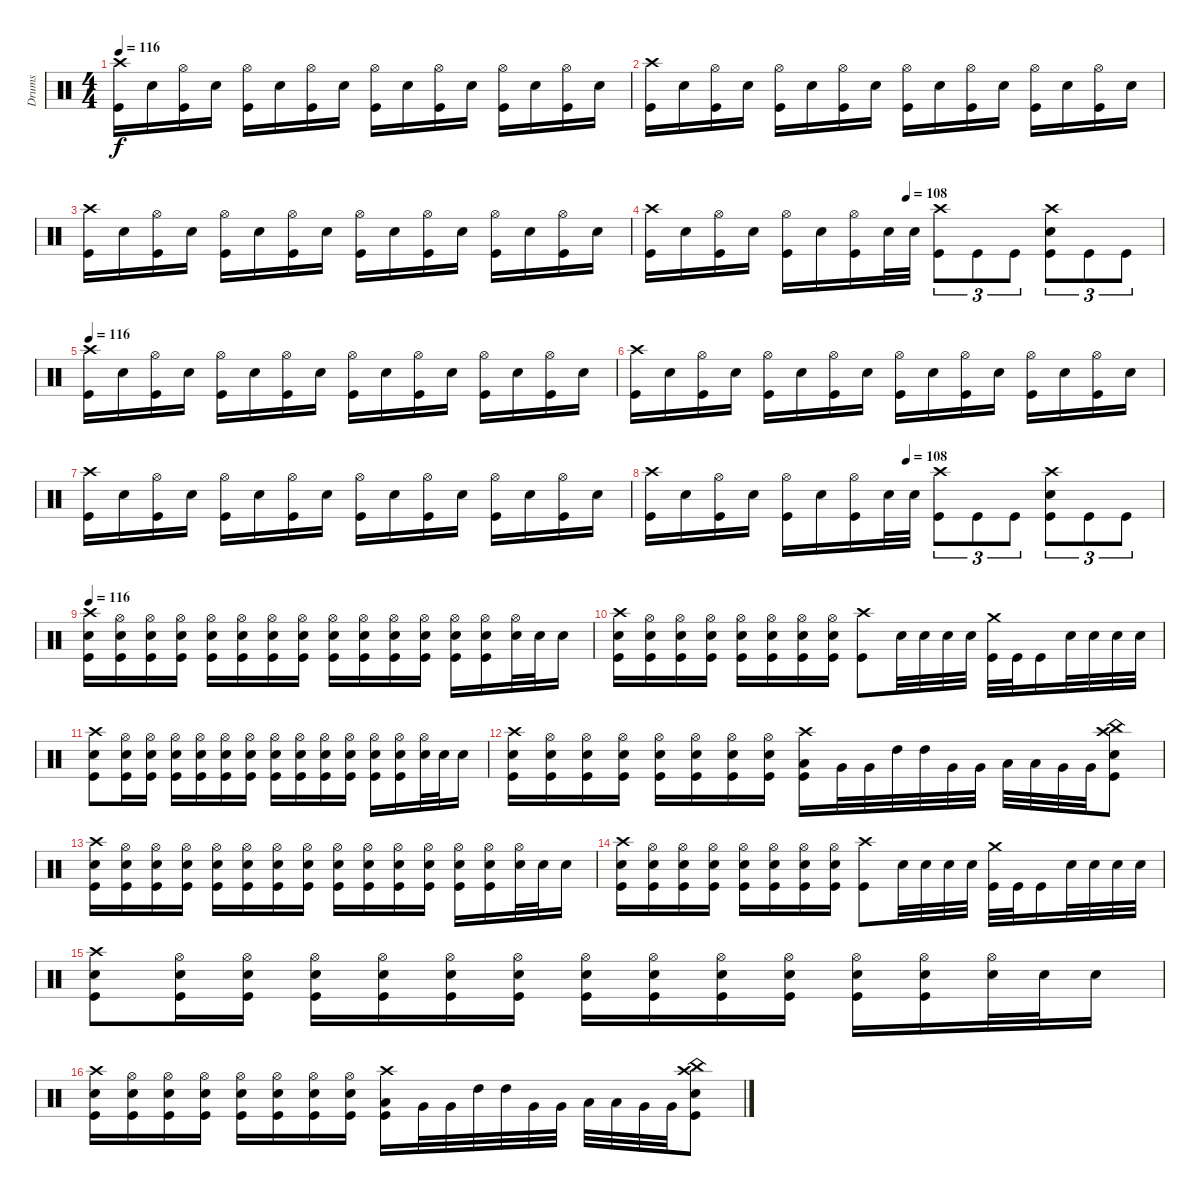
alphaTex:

\track ("Drums" "Drums") {instrument percussion}
\staff {score}
\articulation defaults
\ts (4 4)
\tempo 116
\clef neutral
\ks c
("Crash high (hit)" "Kick (hit)").16{dy f} "Electric Snare (hit)".16 ("Hi-Hat (open)" "Kick (hit)").16 "Electric Snare (hit)".16 ("Hi-Hat (open)" "Kick (hit)").16 "Electric Snare (hit)".16 ("Hi-Hat (open)" "Kick (hit)").16 "Electric Snare (hit)".16 ("Hi-Hat (open)" "Kick (hit)").16 "Electric Snare (hit)".16 ("Hi-Hat (open)" "Kick (hit)").16 "Electric Snare (hit)".16 ("Hi-Hat (open)" "Kick (hit)").16 "Electric Snare (hit)".16 ("Hi-Hat (open)" "Kick (hit)").16 "Electric Snare (hit)".16 |
("Crash high (hit)" "Kick (hit)").16 "Electric Snare (hit)".16 ("Hi-Hat (open)" "Kick (hit)").16 "Electric Snare (hit)".16 ("Hi-Hat (open)" "Kick (hit)").16 "Electric Snare (hit)".16 ("Hi-Hat (open)" "Kick (hit)").16 "Electric Snare (hit)".16 ("Hi-Hat (open)" "Kick (hit)").16 "Electric Snare (hit)".16 ("Hi-Hat (open)" "Kick (hit)").16 "Electric Snare (hit)".16 ("Hi-Hat (open)" "Kick (hit)").16 "Electric Snare (hit)".16 ("Hi-Hat (open)" "Kick (hit)").16 "Electric Snare (hit)".16 |
("Crash high (hit)" "Kick (hit)").16 "Electric Snare (hit)".16 ("Hi-Hat (open)" "Kick (hit)").16 "Electric Snare (hit)".16 ("Hi-Hat (open)" "Kick (hit)").16 "Electric Snare (hit)".16 ("Hi-Hat (open)" "Kick (hit)").16 "Electric Snare (hit)".16 ("Hi-Hat (open)" "Kick (hit)").16 "Electric Snare (hit)".16 ("Hi-Hat (open)" "Kick (hit)").16 "Electric Snare (hit)".16 ("Hi-Hat (open)" "Kick (hit)").16 "Electric Snare (hit)".16 ("Hi-Hat (open)" "Kick (hit)").16 "Electric Snare (hit)".16 |
\tempo (108 0.5)
("Crash high (hit)" "Kick (hit)").16 "Electric Snare (hit)".16 ("Hi-Hat (open)" "Kick (hit)").16 "Electric Snare (hit)".16 ("Hi-Hat (open)" "Kick (hit)").16 "Electric Snare (hit)".16 ("Hi-Hat (open)" "Kick (hit)").16 "Electric Snare (hit)".32 "Electric Snare (hit)".32 ("Crash high (hit)" "Kick (hit)").8{tu (3 2)} "Kick (hit)".8{tu (3 2)} "Kick (hit)".8{tu (3 2)} ("Crash high (hit)" "Electric Snare (hit)" "Kick (hit)").8{tu (3 2)} "Kick (hit)".8{tu (3 2)} "Kick (hit)".8{tu (3 2)} |
\tempo 116
("Crash high (hit)" "Kick (hit)").16 "Electric Snare (hit)".16 ("Hi-Hat (open)" "Kick (hit)").16 "Electric Snare (hit)".16 ("Hi-Hat (open)" "Kick (hit)").16 "Electric Snare (hit)".16 ("Hi-Hat (open)" "Kick (hit)").16 "Electric Snare (hit)".16 ("Hi-Hat (open)" "Kick (hit)").16 "Electric Snare (hit)".16 ("Hi-Hat (open)" "Kick (hit)").16 "Electric Snare (hit)".16 ("Hi-Hat (open)" "Kick (hit)").16 "Electric Snare (hit)".16 ("Hi-Hat (open)" "Kick (hit)").16 "Electric Snare (hit)".16 |
("Crash high (hit)" "Kick (hit)").16 "Electric Snare (hit)".16 ("Hi-Hat (open)" "Kick (hit)").16 "Electric Snare (hit)".16 ("Hi-Hat (open)" "Kick (hit)").16 "Electric Snare (hit)".16 ("Hi-Hat (open)" "Kick (hit)").16 "Electric Snare (hit)".16 ("Hi-Hat (open)" "Kick (hit)").16 "Electric Snare (hit)".16 ("Hi-Hat (open)" "Kick (hit)").16 "Electric Snare (hit)".16 ("Hi-Hat (open)" "Kick (hit)").16 "Electric Snare (hit)".16 ("Hi-Hat (open)" "Kick (hit)").16 "Electric Snare (hit)".16 |
("Crash high (hit)" "Kick (hit)").16 "Electric Snare (hit)".16 ("Hi-Hat (open)" "Kick (hit)").16 "Electric Snare (hit)".16 ("Hi-Hat (open)" "Kick (hit)").16 "Electric Snare (hit)".16 ("Hi-Hat (open)" "Kick (hit)").16 "Electric Snare (hit)".16 ("Hi-Hat (open)" "Kick (hit)").16 "Electric Snare (hit)".16 ("Hi-Hat (open)" "Kick (hit)").16 "Electric Snare (hit)".16 ("Hi-Hat (open)" "Kick (hit)").16 "Electric Snare (hit)".16 ("Hi-Hat (open)" "Kick (hit)").16 "Electric Snare (hit)".16 |
\tempo (108 0.5)
("Crash high (hit)" "Kick (hit)").16 "Electric Snare (hit)".16 ("Hi-Hat (open)" "Kick (hit)").16 "Electric Snare (hit)".16 ("Hi-Hat (open)" "Kick (hit)").16 "Electric Snare (hit)".16 ("Hi-Hat (open)" "Kick (hit)").16 "Electric Snare (hit)".32 "Electric Snare (hit)".32 ("Crash high (hit)" "Kick (hit)").8{tu (3 2)} "Kick (hit)".8{tu (3 2)} "Kick (hit)".8{tu (3 2)} ("Crash high (hit)" "Electric Snare (hit)" "Kick (hit)").8{tu (3 2)} "Kick (hit)".8{tu (3 2)} "Kick (hit)".8{tu (3 2)} |
\tempo 116
("Crash high (hit)" "Electric Snare (hit)" "Kick (hit)").16 ("Hi-Hat (open)" "Electric Snare (hit)" "Kick (hit)").16 ("Hi-Hat (open)" "Electric Snare (hit)" "Kick (hit)").16 ("Hi-Hat (open)" "Electric Snare (hit)" "Kick (hit)").16 ("Hi-Hat (open)" "Electric Snare (hit)" "Kick (hit)").16 ("Hi-Hat (open)" "Electric Snare (hit)" "Kick (hit)").16 ("Hi-Hat (open)" "Electric Snare (hit)" "Kick (hit)").16 ("Hi-Hat (open)" "Electric Snare (hit)" "Kick (hit)").16 ("Hi-Hat (open)" "Electric Snare (hit)" "Kick (hit)").16 ("Hi-Hat (open)" "Electric Snare (hit)" "Kick (hit)").16 ("Hi-Hat (open)" "Electric Snare (hit)" "Kick (hit)").16 ("Hi-Hat (open)" "Electric Snare (hit)" "Kick (hit)").16 ("Hi-Hat (open)" "Electric Snare (hit)" "Kick (hit)").16 ("Hi-Hat (open)" "Electric Snare (hit)" "Kick (hit)").16 ("Hi-Hat (open)" "Electric Snare (hit)").32 "Electric Snare (hit)".32 "Electric Snare (hit)".16 |
("Crash high (hit)" "Electric Snare (hit)" "Kick (hit)").16 ("Hi-Hat (open)" "Electric Snare (hit)" "Kick (hit)").16 ("Hi-Hat (open)" "Electric Snare (hit)" "Kick (hit)").16 ("Hi-Hat (open)" "Electric Snare (hit)" "Kick (hit)").16 ("Hi-Hat (open)" "Electric Snare (hit)" "Kick (hit)").16 ("Hi-Hat (open)" "Electric Snare (hit)" "Kick (hit)").16 ("Hi-Hat (open)" "Electric Snare (hit)" "Kick (hit)").16 ("Hi-Hat (open)" "Electric Snare (hit)" "Kick (hit)").16 ("Crash high (hit)" "Kick (hit)").8 "Electric Snare (hit)".32 "Electric Snare (hit)".32 "Electric Snare (hit)".32 "Electric Snare (hit)".32 ("Crash medium (hit)" "Kick (hit)").32 "Kick (hit)".32 "Kick (hit)".16 "Electric Snare (hit)".32 "Electric Snare (hit)".32 "Electric Snare (hit)".32 "Electric Snare (hit)".32 |
("Crash high (hit)" "Electric Snare (hit)" "Kick (hit)").8 ("Hi-Hat (open)" "Electric Snare (hit)" "Kick (hit)").16 ("Hi-Hat (open)" "Electric Snare (hit)" "Kick (hit)").16 ("Hi-Hat (open)" "Electric Snare (hit)" "Kick (hit)").16 ("Hi-Hat (open)" "Electric Snare (hit)" "Kick (hit)").16 ("Hi-Hat (open)" "Electric Snare (hit)" "Kick (hit)").16 ("Hi-Hat (open)" "Electric Snare (hit)" "Kick (hit)").16 ("Hi-Hat (open)" "Electric Snare (hit)" "Kick (hit)").16 ("Hi-Hat (open)" "Electric Snare (hit)" "Kick (hit)").16 ("Hi-Hat (open)" "Electric Snare (hit)" "Kick (hit)").16 ("Hi-Hat (open)" "Electric Snare (hit)" "Kick (hit)").16 ("Hi-Hat (open)" "Electric Snare (hit)" "Kick (hit)").16 ("Hi-Hat (open)" "Electric Snare (hit)" "Kick (hit)").16 ("Hi-Hat (open)" "Electric Snare (hit)").32 "Electric Snare (hit)".32 "Electric Snare (hit)".16 |
("Crash high (hit)" "Electric Snare (hit)" "Kick (hit)").16 ("Hi-Hat (open)" "Electric Snare (hit)" "Kick (hit)").16 ("Hi-Hat (open)" "Electric Snare (hit)" "Kick (hit)").16 ("Hi-Hat (open)" "Electric Snare (hit)" "Kick (hit)").16 ("Hi-Hat (open)" "Electric Snare (hit)" "Kick (hit)").16 ("Hi-Hat (open)" "Electric Snare (hit)" "Kick (hit)").16 ("Hi-Hat (open)" "Electric Snare (hit)" "Kick (hit)").16 ("Hi-Hat (open)" "Electric Snare (hit)" "Kick (hit)").16 ("Crash high (hit)" "Low Tom (hit)" "Kick (hit)").16 "Very Low Tom (hit)".32 "Very Low Tom (hit)".32 "High Tom (hit)".32 "High Tom (hit)".32 "Very Low Tom (hit)".32 "Very Low Tom (hit)".32 "Low Tom (hit)".32 "Low Tom (hit)".32 "Very Low Tom (hit)".32 "Very Low Tom (hit)".32 ("Crash high (hit)" "China (hit)" "Electric Snare (hit)" "Kick (hit)").8 |
("Crash high (hit)" "Electric Snare (hit)" "Kick (hit)").16 ("Hi-Hat (open)" "Electric Snare (hit)" "Kick (hit)").16 ("Hi-Hat (open)" "Electric Snare (hit)" "Kick (hit)").16 ("Hi-Hat (open)" "Electric Snare (hit)" "Kick (hit)").16 ("Hi-Hat (open)" "Electric Snare (hit)" "Kick (hit)").16 ("Hi-Hat (open)" "Electric Snare (hit)" "Kick (hit)").16 ("Hi-Hat (open)" "Electric Snare (hit)" "Kick (hit)").16 ("Hi-Hat (open)" "Electric Snare (hit)" "Kick (hit)").16 ("Hi-Hat (open)" "Electric Snare (hit)" "Kick (hit)").16 ("Hi-Hat (open)" "Electric Snare (hit)" "Kick (hit)").16 ("Hi-Hat (open)" "Electric Snare (hit)" "Kick (hit)").16 ("Hi-Hat (open)" "Electric Snare (hit)" "Kick (hit)").16 ("Hi-Hat (open)" "Electric Snare (hit)" "Kick (hit)").16 ("Hi-Hat (open)" "Electric Snare (hit)" "Kick (hit)").16 ("Hi-Hat (open)" "Electric Snare (hit)").32 "Electric Snare (hit)".32 "Electric Snare (hit)".16 |
("Crash high (hit)" "Electric Snare (hit)" "Kick (hit)").16 ("Hi-Hat (open)" "Electric Snare (hit)" "Kick (hit)").16 ("Hi-Hat (open)" "Electric Snare (hit)" "Kick (hit)").16 ("Hi-Hat (open)" "Electric Snare (hit)" "Kick (hit)").16 ("Hi-Hat (open)" "Electric Snare (hit)" "Kick (hit)").16 ("Hi-Hat (open)" "Electric Snare (hit)" "Kick (hit)").16 ("Hi-Hat (open)" "Electric Snare (hit)" "Kick (hit)").16 ("Hi-Hat (open)" "Electric Snare (hit)" "Kick (hit)").16 ("Crash high (hit)" "Kick (hit)").8 "Electric Snare (hit)".32 "Electric Snare (hit)".32 "Electric Snare (hit)".32 "Electric Snare (hit)".32 ("Crash medium (hit)" "Kick (hit)").32 "Kick (hit)".32 "Kick (hit)".16 "Electric Snare (hit)".32 "Electric Snare (hit)".32 "Electric Snare (hit)".32 "Electric Snare (hit)".32 |
("Crash high (hit)" "Electric Snare (hit)" "Kick (hit)").8 ("Hi-Hat (open)" "Electric Snare (hit)" "Kick (hit)").16 ("Hi-Hat (open)" "Electric Snare (hit)" "Kick (hit)").16 ("Hi-Hat (open)" "Electric Snare (hit)" "Kick (hit)").16 ("Hi-Hat (open)" "Electric Snare (hit)" "Kick (hit)").16 ("Hi-Hat (open)" "Electric Snare (hit)" "Kick (hit)").16 ("Hi-Hat (open)" "Electric Snare (hit)" "Kick (hit)").16 ("Hi-Hat (open)" "Electric Snare (hit)" "Kick (hit)").16 ("Hi-Hat (open)" "Electric Snare (hit)" "Kick (hit)").16 ("Hi-Hat (open)" "Electric Snare (hit)" "Kick (hit)").16 ("Hi-Hat (open)" "Electric Snare (hit)" "Kick (hit)").16 ("Hi-Hat (open)" "Electric Snare (hit)" "Kick (hit)").16 ("Hi-Hat (open)" "Electric Snare (hit)" "Kick (hit)").16 ("Hi-Hat (open)" "Electric Snare (hit)").32 "Electric Snare (hit)".32 "Electric Snare (hit)".16 |
("Crash high (hit)" "Electric Snare (hit)" "Kick (hit)").16 ("Hi-Hat (open)" "Electric Snare (hit)" "Kick (hit)").16 ("Hi-Hat (open)" "Electric Snare (hit)" "Kick (hit)").16 ("Hi-Hat (open)" "Electric Snare (hit)" "Kick (hit)").16 ("Hi-Hat (open)" "Electric Snare (hit)" "Kick (hit)").16 ("Hi-Hat (open)" "Electric Snare (hit)" "Kick (hit)").16 ("Hi-Hat (open)" "Electric Snare (hit)" "Kick (hit)").16 ("Hi-Hat (open)" "Electric Snare (hit)" "Kick (hit)").16 ("Crash high (hit)" "Low Tom (hit)" "Kick (hit)").16 "Very Low Tom (hit)".32 "Very Low Tom (hit)".32 "High Tom (hit)".32 "High Tom (hit)".32 "Very Low Tom (hit)".32 "Very Low Tom (hit)".32 "Low Tom (hit)".32 "Low Tom (hit)".32 "Very Low Tom (hit)".32 "Very Low Tom (hit)".32 ("Crash high (hit)" "China (hit)" "Electric Snare (hit)" "Kick (hit)").8
